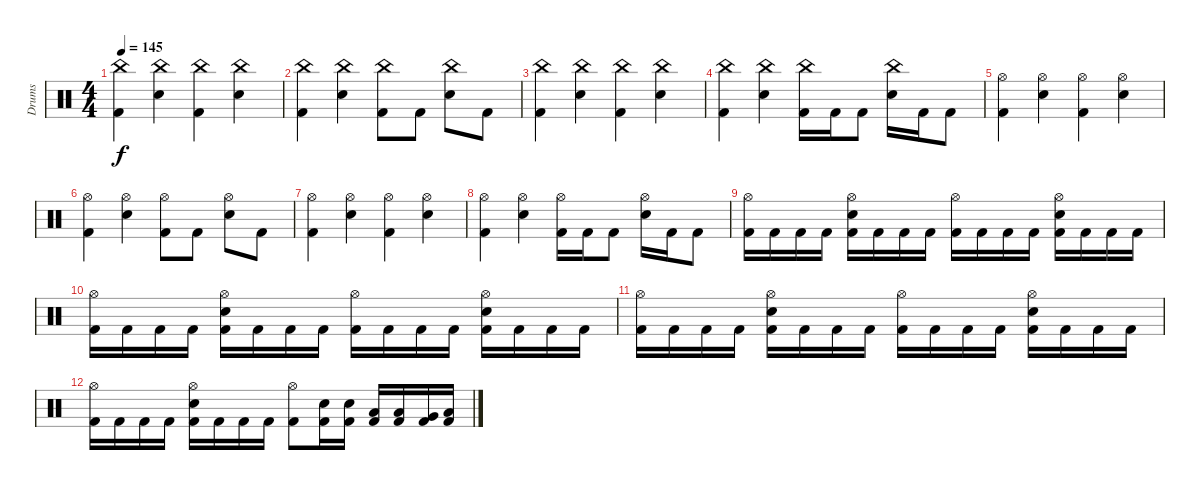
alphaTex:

\track ("Drums" "Drums") {instrument percussion}
\staff {score}
\articulation defaults
\ts (4 4)
\tempo 145
\clef neutral
\ks c
("Kick (hit) 2" "China (hit)").4{dy f} ("Snare (hit) 2" "China (hit)").4 ("Kick (hit) 2" "China (hit)").4 ("Snare (hit) 2" "China (hit)").4 |
("Kick (hit) 2" "China (hit)").4 ("Snare (hit) 2" "China (hit)").4 ("Kick (hit) 2" "China (hit)").8 "Kick (hit) 2".8 ("Snare (hit) 2" "China (hit)").8 "Kick (hit) 2".8 |
("Kick (hit) 2" "China (hit)").4 ("Snare (hit) 2" "China (hit)").4 ("Kick (hit) 2" "China (hit)").4 ("Snare (hit) 2" "China (hit)").4 |
("Kick (hit) 2" "China (hit)").4 ("Snare (hit) 2" "China (hit)").4 ("Kick (hit) 2" "China (hit)").16 "Kick (hit) 2".16 "Kick (hit) 2".8 ("Snare (hit) 2" "China (hit)").16 "Kick (hit) 2".16 "Kick (hit) 2".8 |
("Kick (hit) 2" "Hi-Hat (open)").4 ("Snare (hit) 2" "Hi-Hat (open)").4 ("Kick (hit) 2" "Hi-Hat (open)").4 ("Snare (hit) 2" "Hi-Hat (open)").4 |
("Kick (hit) 2" "Hi-Hat (open)").4 ("Snare (hit) 2" "Hi-Hat (open)").4 ("Kick (hit) 2" "Hi-Hat (open)").8 "Kick (hit) 2".8 ("Snare (hit) 2" "Hi-Hat (open)").8 "Kick (hit) 2".8 |
("Kick (hit) 2" "Hi-Hat (open)").4 ("Snare (hit) 2" "Hi-Hat (open)").4 ("Kick (hit) 2" "Hi-Hat (open)").4 ("Snare (hit) 2" "Hi-Hat (open)").4 |
("Kick (hit) 2" "Hi-Hat (open)").4 ("Snare (hit) 2" "Hi-Hat (open)").4 ("Kick (hit) 2" "Hi-Hat (open)").16 "Kick (hit) 2".16 "Kick (hit) 2".8 ("Snare (hit) 2" "Hi-Hat (open)").16 "Kick (hit) 2".16 "Kick (hit) 2".8 |
("Hi-Hat (open)" "Kick (hit) 2").16 "Kick (hit) 2".16 "Kick (hit) 2".16 "Kick (hit) 2".16 ("Hi-Hat (open)" "Kick (hit) 2" "Snare (hit) 2").16 "Kick (hit) 2".16 "Kick (hit) 2".16 "Kick (hit) 2".16 ("Hi-Hat (open)" "Kick (hit) 2").16 "Kick (hit) 2".16 "Kick (hit) 2".16 "Kick (hit) 2".16 ("Hi-Hat (open)" "Kick (hit) 2" "Snare (hit) 2").16 "Kick (hit) 2".16 "Kick (hit) 2".16 "Kick (hit) 2".16 |
("Hi-Hat (open)" "Kick (hit) 2").16 "Kick (hit) 2".16 "Kick (hit) 2".16 "Kick (hit) 2".16 ("Hi-Hat (open)" "Kick (hit) 2" "Snare (hit) 2").16 "Kick (hit) 2".16 "Kick (hit) 2".16 "Kick (hit) 2".16 ("Hi-Hat (open)" "Kick (hit) 2").16 "Kick (hit) 2".16 "Kick (hit) 2".16 "Kick (hit) 2".16 ("Hi-Hat (open)" "Kick (hit) 2" "Snare (hit) 2").16 "Kick (hit) 2".16 "Kick (hit) 2".16 "Kick (hit) 2".16 |
("Hi-Hat (open)" "Kick (hit) 2").16 "Kick (hit) 2".16 "Kick (hit) 2".16 "Kick (hit) 2".16 ("Hi-Hat (open)" "Kick (hit) 2" "Snare (hit) 2").16 "Kick (hit) 2".16 "Kick (hit) 2".16 "Kick (hit) 2".16 ("Hi-Hat (open)" "Kick (hit) 2").16 "Kick (hit) 2".16 "Kick (hit) 2".16 "Kick (hit) 2".16 ("Hi-Hat (open)" "Kick (hit) 2" "Snare (hit) 2").16 "Kick (hit) 2".16 "Kick (hit) 2".16 "Kick (hit) 2".16 |
("Hi-Hat (open)" "Kick (hit) 2").16 "Kick (hit) 2".16 "Kick (hit) 2".16 "Kick (hit) 2".16 ("Hi-Hat (open)" "Kick (hit) 2" "Snare (hit) 2").16 "Kick (hit) 2".16 "Kick (hit) 2".16 "Kick (hit) 2".16 ("Hi-Hat (open)" "Kick (hit) 2").8 ("Kick (hit) 2" "Snare (hit) 2").16 ("Kick (hit) 2" "Snare (hit) 2").16 ("Kick (hit) 2" "Low Tom (hit)").16 ("Kick (hit) 2" "Low Tom (hit)").16 ("Kick (hit) 2" "Very Low Tom (hit)").16 ("Kick (hit) 2" "Low Floor Tom (hit)").16
